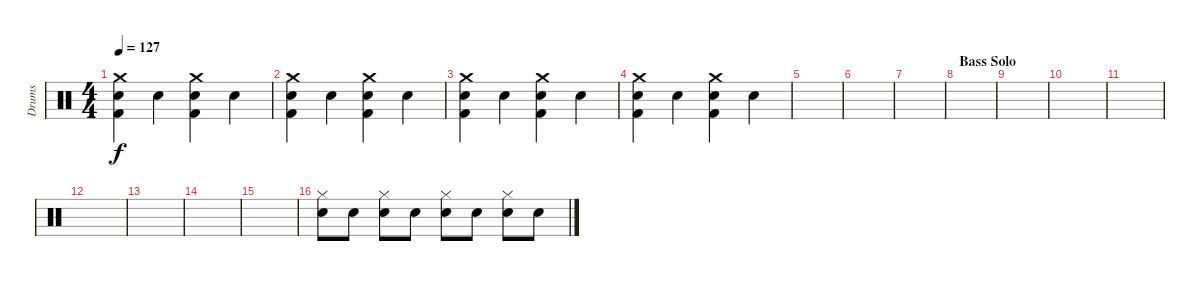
\track ("Drums" "Drums") {instrument percussion}
\staff {score}
\articulation defaults
\ts (4 4)
\tempo 127
\clef neutral
\ks c
("Crash medium (hit)" "Kick (hit) 2" "Snare (hit) 2").4{dy f} "Snare (hit) 2".4 ("Crash medium (hit)" "Kick (hit) 2" "Snare (hit) 2").4 "Snare (hit) 2".4 |
("Crash medium (hit)" "Kick (hit) 2" "Snare (hit) 2").4 "Snare (hit) 2".4 ("Crash medium (hit)" "Kick (hit) 2" "Snare (hit) 2").4 "Snare (hit) 2".4 |
("Crash medium (hit)" "Kick (hit) 2" "Snare (hit) 2").4 "Snare (hit) 2".4 ("Crash medium (hit)" "Kick (hit) 2" "Snare (hit) 2").4 "Snare (hit) 2".4 |
("Crash medium (hit)" "Kick (hit) 2" "Snare (hit) 2").4 "Snare (hit) 2".4 ("Crash medium (hit)" "Kick (hit) 2" "Snare (hit) 2").4 "Snare (hit) 2".4 |
|
|
|
\section ("" "Bass Solo")
|
|
|
|
|
|
|
|
("Hi-Hat (closed)" "Snare (hit) 2").8 "Snare (hit) 2".8 ("Hi-Hat (closed)" "Snare (hit) 2").8 "Snare (hit) 2".8 ("Hi-Hat (closed)" "Snare (hit) 2").8 "Snare (hit) 2".8 ("Hi-Hat (closed)" "Snare (hit) 2").8 "Snare (hit) 2".8
